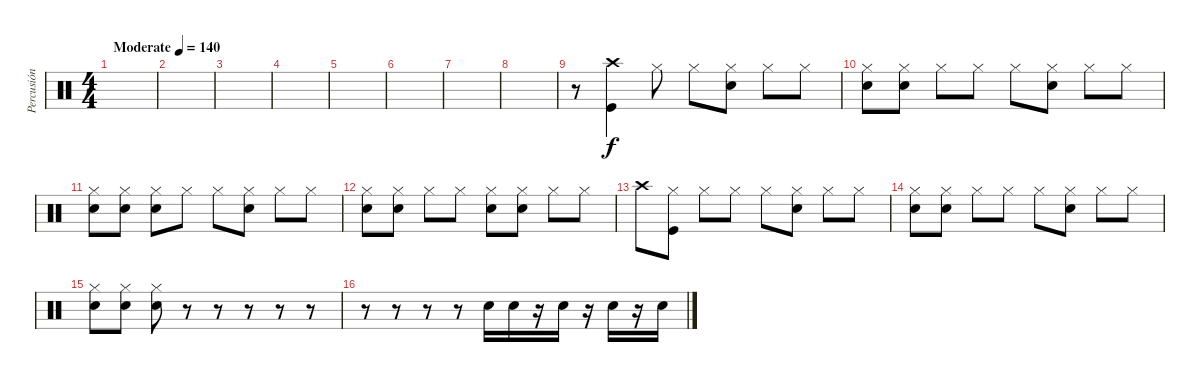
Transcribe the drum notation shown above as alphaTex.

\track ("Percusión" "Percusión") {instrument percussion}
\staff {score}
\articulation defaults
\ts (4 4)
\tempo (140 "Moderate")
\clef neutral
\ks c
|
|
|
|
|
|
|
|
r.8 ("Crash high (hit)" "Kick (hit)").4 "Hi-Hat (closed)".8 "Hi-Hat (closed)".8 ("Hi-Hat (closed)" "Snare (hit) 2").8 "Hi-Hat (closed)".8 "Hi-Hat (closed)".8 |
("Hi-Hat (closed)" "Snare (hit) 2").8 ("Hi-Hat (closed)" "Snare (hit) 2").8 "Hi-Hat (closed)".8 "Hi-Hat (closed)".8 "Hi-Hat (closed)".8 ("Hi-Hat (closed)" "Snare (hit) 2").8 "Hi-Hat (closed)".8 "Hi-Hat (closed)".8 |
("Hi-Hat (closed)" "Snare (hit) 2").8 ("Hi-Hat (closed)" "Snare (hit) 2").8 ("Hi-Hat (closed)" "Snare (hit) 2").8 "Hi-Hat (closed)".8 "Hi-Hat (closed)".8 ("Hi-Hat (closed)" "Snare (hit) 2").8 "Hi-Hat (closed)".8 "Hi-Hat (closed)".8 |
("Hi-Hat (closed)" "Snare (hit) 2").8 ("Hi-Hat (closed)" "Snare (hit) 2").8 "Hi-Hat (closed)".8 "Hi-Hat (closed)".8 ("Hi-Hat (closed)" "Snare (hit) 2").8 ("Hi-Hat (closed)" "Snare (hit) 2").8 "Hi-Hat (closed)".8 "Hi-Hat (closed)".8 |
"Crash high (hit)".8 ("Hi-Hat (closed)" "Kick (hit)").8 "Hi-Hat (closed)".8 "Hi-Hat (closed)".8 "Hi-Hat (closed)".8 ("Hi-Hat (closed)" "Snare (hit) 2").8 "Hi-Hat (closed)".8 "Hi-Hat (closed)".8 |
("Hi-Hat (closed)" "Snare (hit) 2").8 ("Hi-Hat (closed)" "Snare (hit) 2").8 "Hi-Hat (closed)".8 "Hi-Hat (closed)".8 "Hi-Hat (closed)".8 ("Hi-Hat (closed)" "Snare (hit) 2").8 "Hi-Hat (closed)".8 "Hi-Hat (closed)".8 |
("Hi-Hat (closed)" "Snare (hit) 2").8 ("Hi-Hat (closed)" "Snare (hit) 2").8 ("Hi-Hat (closed)" "Snare (hit) 2").8 r.8 r.8 r.8 r.8 r.8 |
r.8 r.8 r.8 r.8 "Snare (hit) 2".16 "Snare (hit) 2".16 r.16 "Snare (hit) 2".16 r.16 "Snare (hit) 2".16 r.16 "Snare (hit) 2".16
